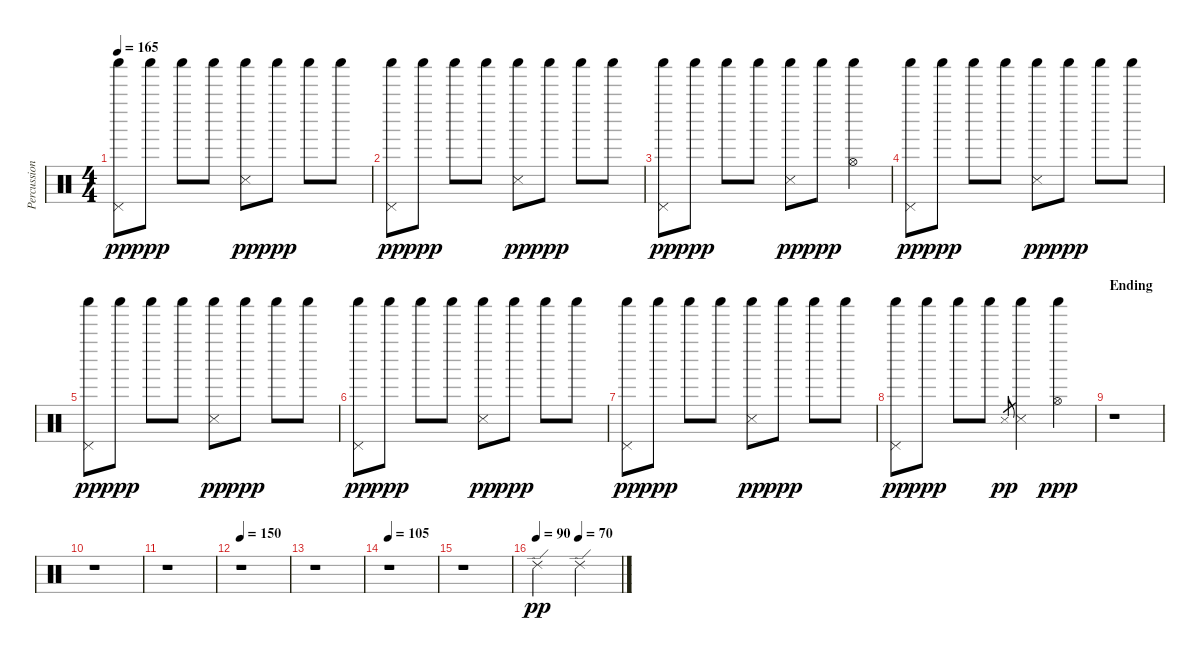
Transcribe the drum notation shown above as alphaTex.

\track ("Percussion" "Percussion") {instrument percussion}
\staff {score}
\articulation defaults
\ts (4 4)
\tempo 165
\clef neutral
\ks c
("Pedal Hi-Hat (hit)" "Shaker (hit)").8{dy pp} "Shaker (hit)".8{dy ppp} "Shaker (hit)".8 "Shaker (hit)".8 ("Snare (side stick) 3" "Shaker (hit)").8{dy pp} "Shaker (hit)".8{dy ppp} "Shaker (hit)".8 "Shaker (hit)".8 |
("Pedal Hi-Hat (hit)" "Shaker (hit)").8{dy pp} "Shaker (hit)".8{dy ppp} "Shaker (hit)".8 "Shaker (hit)".8 ("Snare (side stick) 3" "Shaker (hit)").8{dy pp} "Shaker (hit)".8{dy ppp} "Shaker (hit)".8 "Shaker (hit)".8 |
("Pedal Hi-Hat (hit)" "Shaker (hit)").8{dy pp} "Shaker (hit)".8{dy ppp} "Shaker (hit)".8 "Shaker (hit)".8 ("Snare (side stick) 3" "Shaker (hit)").8{dy pp} "Shaker (hit)".8{dy ppp} ("Hi-Hat (open)" "Shaker (hit)").4 |
("Pedal Hi-Hat (hit)" "Shaker (hit)").8{dy pp} "Shaker (hit)".8{dy ppp} "Shaker (hit)".8 "Shaker (hit)".8 ("Snare (side stick) 3" "Shaker (hit)").8{dy pp} "Shaker (hit)".8{dy ppp} "Shaker (hit)".8 "Shaker (hit)".8 |
("Pedal Hi-Hat (hit)" "Shaker (hit)").8{dy pp} "Shaker (hit)".8{dy ppp} "Shaker (hit)".8 "Shaker (hit)".8 ("Snare (side stick) 3" "Shaker (hit)").8{dy pp} "Shaker (hit)".8{dy ppp} "Shaker (hit)".8 "Shaker (hit)".8 |
("Pedal Hi-Hat (hit)" "Shaker (hit)").8{dy pp} "Shaker (hit)".8{dy ppp} "Shaker (hit)".8 "Shaker (hit)".8 ("Snare (side stick) 3" "Shaker (hit)").8{dy pp} "Shaker (hit)".8{dy ppp} "Shaker (hit)".8 "Shaker (hit)".8 |
("Pedal Hi-Hat (hit)" "Shaker (hit)").8{dy pp} "Shaker (hit)".8{dy ppp} "Shaker (hit)".8 "Shaker (hit)".8 ("Snare (side stick) 3" "Shaker (hit)").8{dy pp} "Shaker (hit)".8{dy ppp} "Shaker (hit)".8 "Shaker (hit)".8 |
("Pedal Hi-Hat (hit)" "Shaker (hit)").8{dy pp} "Shaker (hit)".8{dy ppp} "Shaker (hit)".8 "Shaker (hit)".8 "Snare (side stick) 3".8{gr dy pp} ("Snare (side stick) 3" "Shaker (hit)").4 ("Hi-Hat (open)" "Shaker (hit)").4{dy ppp} |
\section ("" "Ending")
r.1 |
r.1 |
r.1 |
\tempo 150
r.1 |
r.1 |
\tempo 105
r.1 |
r.1 |
\tempo 90
\tempo (70 0.5)
"Ride (edge) 2".2{dy pp} "Ride (edge) 2".2
